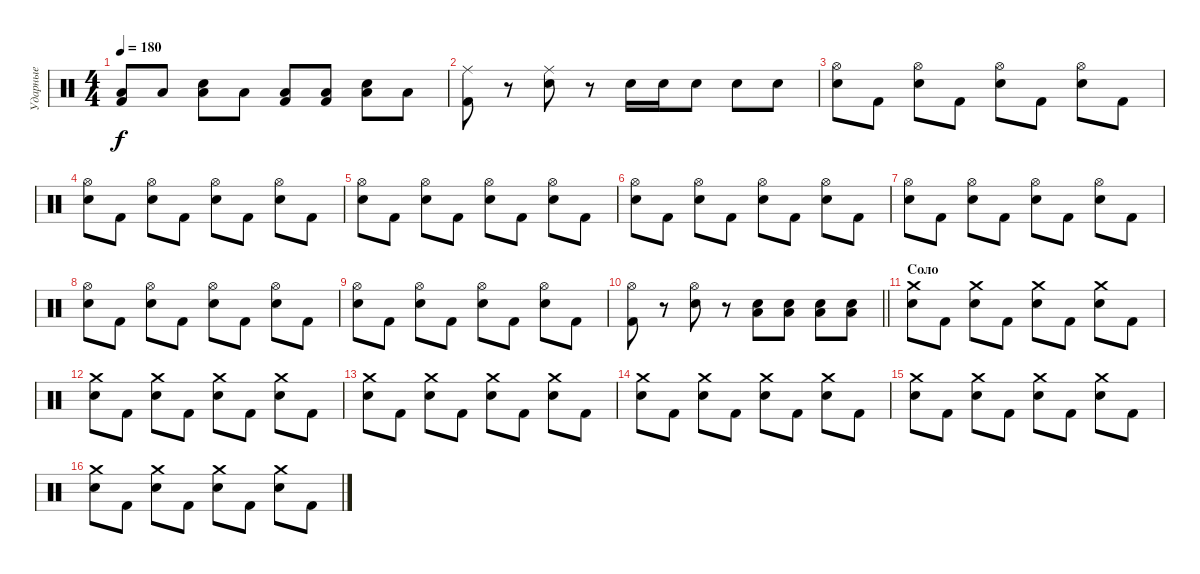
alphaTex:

\track ("Ударные" "Ударные") {instrument percussion}
\staff {score}
\articulation defaults
\ts (4 4)
\tempo 180
\clef neutral
\ks c
("Low Floor Tom (hit)" "Kick (hit) 2").8{dy f} "Low Floor Tom (hit)".8 ("Low Floor Tom (hit)" "Snare (hit) 2").8 "Low Floor Tom (hit)".8 ("Low Floor Tom (hit)" "Kick (hit) 2").8 ("Low Floor Tom (hit)" "Kick (hit) 2").8 ("Low Floor Tom (hit)" "Snare (hit) 2").8 "Low Floor Tom (hit)".8 |
("Ride (middle)" "Kick (hit) 2").8 r.8 ("Ride (middle)" "Snare (hit) 2").8 r.8 "Snare (hit) 2".16 "Snare (hit) 2".16 "Snare (hit) 2".8 "Snare (hit) 2".8 "Snare (hit) 2".8 |
("Hi-Hat (open)" "Snare (hit) 2").8 "Kick (hit) 2".8 ("Hi-Hat (open)" "Snare (hit) 2").8 "Kick (hit) 2".8 ("Hi-Hat (open)" "Snare (hit) 2").8 "Kick (hit) 2".8 ("Hi-Hat (open)" "Snare (hit) 2").8 "Kick (hit) 2".8 |
("Hi-Hat (open)" "Snare (hit) 2").8 "Kick (hit) 2".8 ("Hi-Hat (open)" "Snare (hit) 2").8 "Kick (hit) 2".8 ("Hi-Hat (open)" "Snare (hit) 2").8 "Kick (hit) 2".8 ("Hi-Hat (open)" "Snare (hit) 2").8 "Kick (hit) 2".8 |
("Hi-Hat (open)" "Snare (hit) 2").8 "Kick (hit) 2".8 ("Hi-Hat (open)" "Snare (hit) 2").8 "Kick (hit) 2".8 ("Hi-Hat (open)" "Snare (hit) 2").8 "Kick (hit) 2".8 ("Hi-Hat (open)" "Snare (hit) 2").8 "Kick (hit) 2".8 |
("Hi-Hat (open)" "Snare (hit) 2").8 "Kick (hit) 2".8 ("Hi-Hat (open)" "Snare (hit) 2").8 "Kick (hit) 2".8 ("Hi-Hat (open)" "Snare (hit) 2").8 "Kick (hit) 2".8 ("Hi-Hat (open)" "Snare (hit) 2").8 "Kick (hit) 2".8 |
("Hi-Hat (open)" "Snare (hit) 2").8 "Kick (hit) 2".8 ("Hi-Hat (open)" "Snare (hit) 2").8 "Kick (hit) 2".8 ("Hi-Hat (open)" "Snare (hit) 2").8 "Kick (hit) 2".8 ("Hi-Hat (open)" "Snare (hit) 2").8 "Kick (hit) 2".8 |
("Hi-Hat (open)" "Snare (hit) 2").8 "Kick (hit) 2".8 ("Hi-Hat (open)" "Snare (hit) 2").8 "Kick (hit) 2".8 ("Hi-Hat (open)" "Snare (hit) 2").8 "Kick (hit) 2".8 ("Hi-Hat (open)" "Snare (hit) 2").8 "Kick (hit) 2".8 |
("Hi-Hat (open)" "Snare (hit) 2").8 "Kick (hit) 2".8 ("Hi-Hat (open)" "Snare (hit) 2").8 "Kick (hit) 2".8 ("Hi-Hat (open)" "Snare (hit) 2").8 "Kick (hit) 2".8 ("Hi-Hat (open)" "Snare (hit) 2").8 "Kick (hit) 2".8 |
\barLineRight lightlight
("Hi-Hat (open)" "Kick (hit) 2").8 r.8 ("Hi-Hat (open)" "Snare (hit) 2").8 r.8 ("Low Floor Tom (hit)" "Snare (hit) 2").8 ("Low Floor Tom (hit)" "Snare (hit) 2").8 ("Low Floor Tom (hit)" "Snare (hit) 2").8 ("Low Floor Tom (hit)" "Snare (hit) 2").8 |
\section ("" "Соло")
("Crash medium (hit)" "Snare (hit) 2").8 "Kick (hit) 2".8 ("Crash medium (hit)" "Snare (hit) 2").8 "Kick (hit) 2".8 ("Crash medium (hit)" "Snare (hit) 2").8 "Kick (hit) 2".8 ("Crash medium (hit)" "Snare (hit) 2").8 "Kick (hit) 2".8 |
("Crash medium (hit)" "Snare (hit) 2").8 "Kick (hit) 2".8 ("Crash medium (hit)" "Snare (hit) 2").8 "Kick (hit) 2".8 ("Crash medium (hit)" "Snare (hit) 2").8 "Kick (hit) 2".8 ("Crash medium (hit)" "Snare (hit) 2").8 "Kick (hit) 2".8 |
("Crash medium (hit)" "Snare (hit) 2").8 "Kick (hit) 2".8 ("Crash medium (hit)" "Snare (hit) 2").8 "Kick (hit) 2".8 ("Crash medium (hit)" "Snare (hit) 2").8 "Kick (hit) 2".8 ("Crash medium (hit)" "Snare (hit) 2").8 "Kick (hit) 2".8 |
("Crash medium (hit)" "Snare (hit) 2").8 "Kick (hit) 2".8 ("Crash medium (hit)" "Snare (hit) 2").8 "Kick (hit) 2".8 ("Crash medium (hit)" "Snare (hit) 2").8 "Kick (hit) 2".8 ("Crash medium (hit)" "Snare (hit) 2").8 "Kick (hit) 2".8 |
("Crash medium (hit)" "Snare (hit) 2").8 "Kick (hit) 2".8 ("Crash medium (hit)" "Snare (hit) 2").8 "Kick (hit) 2".8 ("Crash medium (hit)" "Snare (hit) 2").8 "Kick (hit) 2".8 ("Crash medium (hit)" "Snare (hit) 2").8 "Kick (hit) 2".8 |
("Crash medium (hit)" "Snare (hit) 2").8 "Kick (hit) 2".8 ("Crash medium (hit)" "Snare (hit) 2").8 "Kick (hit) 2".8 ("Crash medium (hit)" "Snare (hit) 2").8 "Kick (hit) 2".8 ("Crash medium (hit)" "Snare (hit) 2").8 "Kick (hit) 2".8
